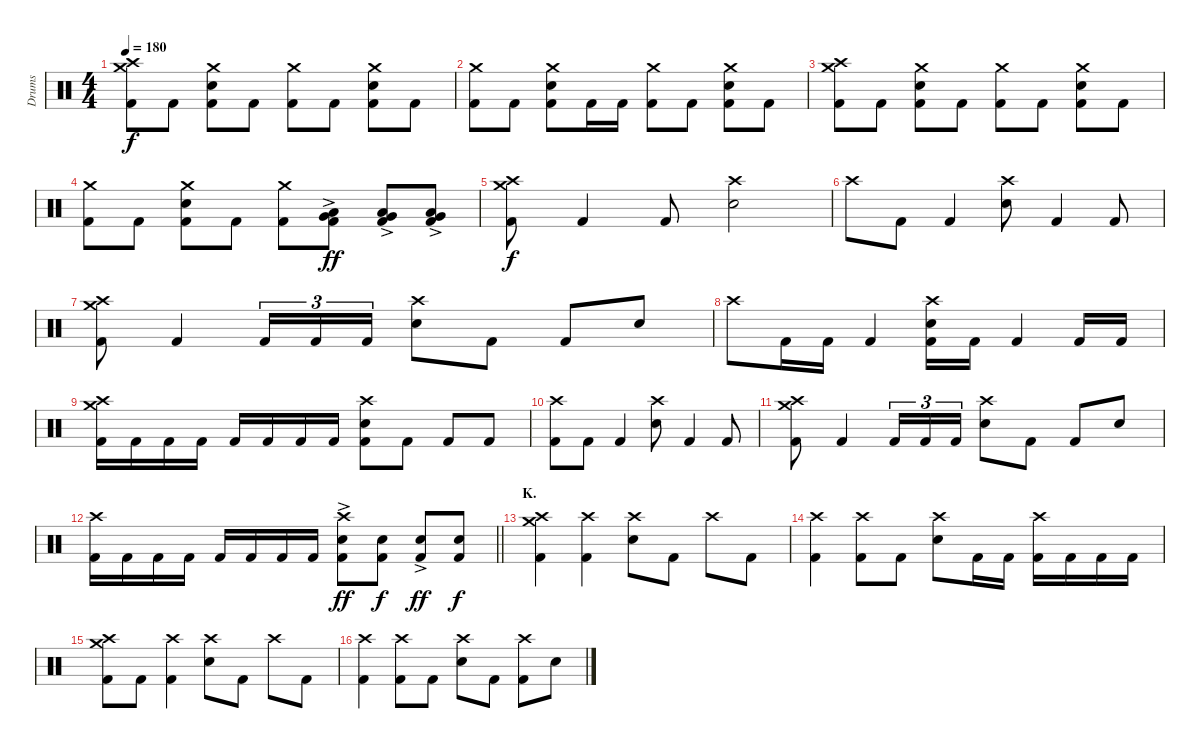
\track ("Drums" "Drums") {instrument percussion}
\staff {score}
\articulation defaults
\ts (4 4)
\tempo 180
\clef neutral
\ks c
("Crash medium (hit)" "Crash high (hit)" "Kick (hit) 2").8{dy f} "Kick (hit) 2".8 ("Crash medium (hit)" "Electric Snare (hit)" "Kick (hit) 2").8 "Kick (hit) 2".8 ("Crash medium (hit)" "Kick (hit) 2").8 "Kick (hit) 2".8 ("Crash medium (hit)" "Electric Snare (hit)" "Kick (hit) 2").8 "Kick (hit) 2".8 |
("Crash medium (hit)" "Kick (hit) 2").8 "Kick (hit) 2".8 ("Crash medium (hit)" "Electric Snare (hit)" "Kick (hit) 2").8 "Kick (hit) 2".16 "Kick (hit) 2".16 ("Crash medium (hit)" "Kick (hit) 2").8 "Kick (hit) 2".8 ("Crash medium (hit)" "Electric Snare (hit)" "Kick (hit) 2").8 "Kick (hit) 2".8 |
("Crash medium (hit)" "Crash high (hit)" "Kick (hit) 2").8 "Kick (hit) 2".8 ("Crash medium (hit)" "Electric Snare (hit)" "Kick (hit) 2").8 "Kick (hit) 2".8 ("Crash medium (hit)" "Kick (hit) 2").8 "Kick (hit) 2".8 ("Crash medium (hit)" "Electric Snare (hit)" "Kick (hit) 2").8 "Kick (hit) 2".8 |
("Crash medium (hit)" "Kick (hit) 2").8 "Kick (hit) 2".8 ("Crash medium (hit)" "Electric Snare (hit)" "Kick (hit) 2").8 "Kick (hit) 2".8 ("Crash medium (hit)" "Kick (hit) 2").8 ("Very Low Tom (hit)" "Low Floor Tom (hit)"{ac} "Kick (hit) 2").8{dy ff} ("Very Low Tom (hit)" "Low Floor Tom (hit)"{ac} "Kick (hit) 2").8 ("Very Low Tom (hit)" "Low Floor Tom (hit)"{ac} "Kick (hit) 2").8 |
("Crash medium (hit)" "Crash high (hit)" "Kick (hit) 2").8{dy f} "Kick (hit) 2".4 "Kick (hit) 2".8 ("Crash high (hit)" "Electric Snare (hit)").2 |
"Crash high (hit)".8 "Kick (hit) 2".8 "Kick (hit) 2".4 ("Crash high (hit)" "Electric Snare (hit)").8 "Kick (hit) 2".4 "Kick (hit) 2".8 |
("Crash medium (hit)" "Crash high (hit)" "Kick (hit) 2").8 "Kick (hit) 2".4 "Kick (hit) 2".16{tu (3 2)} "Kick (hit) 2".16{tu (3 2)} "Kick (hit) 2".16{tu (3 2)} ("Crash high (hit)" "Electric Snare (hit)").8 "Kick (hit) 2".8 "Kick (hit) 2".8 "Electric Snare (hit)".8 |
"Crash high (hit)".8 "Kick (hit) 2".16 "Kick (hit) 2".16 "Kick (hit) 2".4 ("Crash high (hit)" "Electric Snare (hit)" "Kick (hit) 2").16 "Kick (hit) 2".16 "Kick (hit) 2".4 "Kick (hit) 2".16 "Kick (hit) 2".16 |
("Crash medium (hit)" "Crash high (hit)" "Kick (hit) 2").16 "Kick (hit) 2".16 "Kick (hit) 2".16 "Kick (hit) 2".16 "Kick (hit) 2".16 "Kick (hit) 2".16 "Kick (hit) 2".16 "Kick (hit) 2".16 ("Crash high (hit)" "Electric Snare (hit)" "Kick (hit) 2").8 "Kick (hit) 2".8 "Kick (hit) 2".8 "Kick (hit) 2".8 |
("Crash high (hit)" "Kick (hit) 2").8 "Kick (hit) 2".8 "Kick (hit) 2".4 ("Crash high (hit)" "Electric Snare (hit)").8 "Kick (hit) 2".4 "Kick (hit) 2".8 |
("Crash medium (hit)" "Crash high (hit)" "Kick (hit) 2").8 "Kick (hit) 2".4 "Kick (hit) 2".16{tu (3 2)} "Kick (hit) 2".16{tu (3 2)} "Kick (hit) 2".16{tu (3 2)} ("Crash high (hit)" "Electric Snare (hit)").8 "Kick (hit) 2".8 "Kick (hit) 2".8 "Electric Snare (hit)".8 |
\barLineRight lightlight
("Crash high (hit)" "Kick (hit) 2").16 "Kick (hit) 2".16 "Kick (hit) 2".16 "Kick (hit) 2".16 "Kick (hit) 2".16 "Kick (hit) 2".16 "Kick (hit) 2".16 "Kick (hit) 2".16 ("Crash high (hit)" "Electric Snare (hit)"{ac} "Kick (hit) 2").8{dy ff} ("Electric Snare (hit)" "Kick (hit) 2").8{dy f} ("Electric Snare (hit)"{ac} "Kick (hit) 2").8{dy ff} ("Electric Snare (hit)" "Kick (hit) 2").8{dy f} |
\section ("" "K.")
("Crash medium (hit)" "Crash high (hit)" "Kick (hit) 2").4 ("Crash high (hit)" "Kick (hit) 2").4 ("Crash high (hit)" "Electric Snare (hit)").8 "Kick (hit) 2".8 "Crash high (hit)".8 "Kick (hit) 2".8 |
("Crash high (hit)" "Kick (hit) 2").4 ("Crash high (hit)" "Kick (hit) 2").8 "Kick (hit) 2".8 ("Crash high (hit)" "Electric Snare (hit)").8 "Kick (hit) 2".16 "Kick (hit) 2".16 ("Crash high (hit)" "Kick (hit) 2").16 "Kick (hit) 2".16 "Kick (hit) 2".16 "Kick (hit) 2".16 |
("Crash medium (hit)" "Crash high (hit)" "Kick (hit) 2").8 "Kick (hit) 2".8 ("Crash high (hit)" "Kick (hit) 2").4 ("Crash high (hit)" "Electric Snare (hit)").8 "Kick (hit) 2".8 "Crash high (hit)".8 "Kick (hit) 2".8 |
("Crash high (hit)" "Kick (hit) 2").4 ("Crash high (hit)" "Kick (hit) 2").8 "Kick (hit) 2".8 ("Crash high (hit)" "Electric Snare (hit)").8 "Kick (hit) 2".8 ("Crash high (hit)" "Kick (hit) 2").8 "Electric Snare (hit)".8
